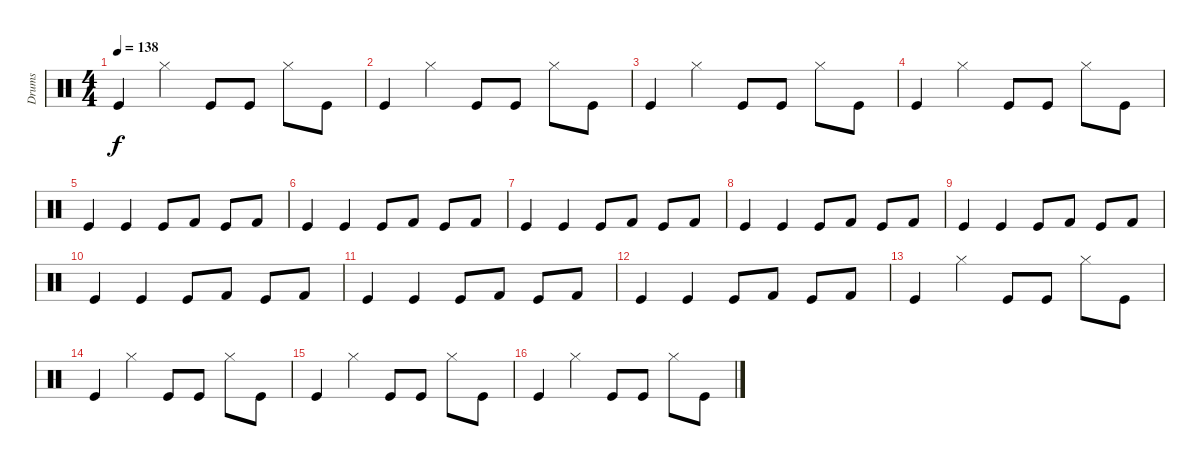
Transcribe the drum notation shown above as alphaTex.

\track ("Drums" "Drums") {instrument percussion}
\staff {score}
\articulation defaults
\ts (4 4)
\tempo 138
\clef neutral
\ks c "Kick (hit)".4{dy f} "Hi-Hat (closed)".4 "Kick (hit)".8 "Kick (hit)".8 "Hi-Hat (closed)".8 "Kick (hit)".8
|
"Kick (hit)".4 "Hi-Hat (closed)".4 "Kick (hit)".8 "Kick (hit)".8 "Hi-Hat (closed)".8 "Kick (hit)".8 |
"Kick (hit)".4 "Hi-Hat (closed)".4 "Kick (hit)".8 "Kick (hit)".8 "Hi-Hat (closed)".8 "Kick (hit)".8 |
"Kick (hit)".4 "Hi-Hat (closed)".4 "Kick (hit)".8 "Kick (hit)".8 "Hi-Hat (closed)".8 "Kick (hit)".8 |
"Kick (hit)".4 "Kick (hit)".4 "Kick (hit)".8 "Kick (hit) 2".8 "Kick (hit)".8 "Kick (hit) 2".8 |
"Kick (hit)".4 "Kick (hit)".4 "Kick (hit)".8 "Kick (hit) 2".8 "Kick (hit)".8 "Kick (hit) 2".8 |
"Kick (hit)".4 "Kick (hit)".4 "Kick (hit)".8 "Kick (hit) 2".8 "Kick (hit)".8 "Kick (hit) 2".8 |
"Kick (hit)".4 "Kick (hit)".4 "Kick (hit)".8 "Kick (hit) 2".8 "Kick (hit)".8 "Kick (hit) 2".8 |
"Kick (hit)".4 "Kick (hit)".4 "Kick (hit)".8 "Kick (hit) 2".8 "Kick (hit)".8 "Kick (hit) 2".8 |
"Kick (hit)".4 "Kick (hit)".4 "Kick (hit)".8 "Kick (hit) 2".8 "Kick (hit)".8 "Kick (hit) 2".8 |
"Kick (hit)".4 "Kick (hit)".4 "Kick (hit)".8 "Kick (hit) 2".8 "Kick (hit)".8 "Kick (hit) 2".8 |
"Kick (hit)".4 "Kick (hit)".4 "Kick (hit)".8 "Kick (hit) 2".8 "Kick (hit)".8 "Kick (hit) 2".8 |
"Kick (hit)".4 "Hi-Hat (closed)".4 "Kick (hit)".8 "Kick (hit)".8 "Hi-Hat (closed)".8 "Kick (hit)".8 |
"Kick (hit)".4 "Hi-Hat (closed)".4 "Kick (hit)".8 "Kick (hit)".8 "Hi-Hat (closed)".8 "Kick (hit)".8 |
"Kick (hit)".4 "Hi-Hat (closed)".4 "Kick (hit)".8 "Kick (hit)".8 "Hi-Hat (closed)".8 "Kick (hit)".8 |
"Kick (hit)".4 "Hi-Hat (closed)".4 "Kick (hit)".8 "Kick (hit)".8 "Hi-Hat (closed)".8 "Kick (hit)".8
